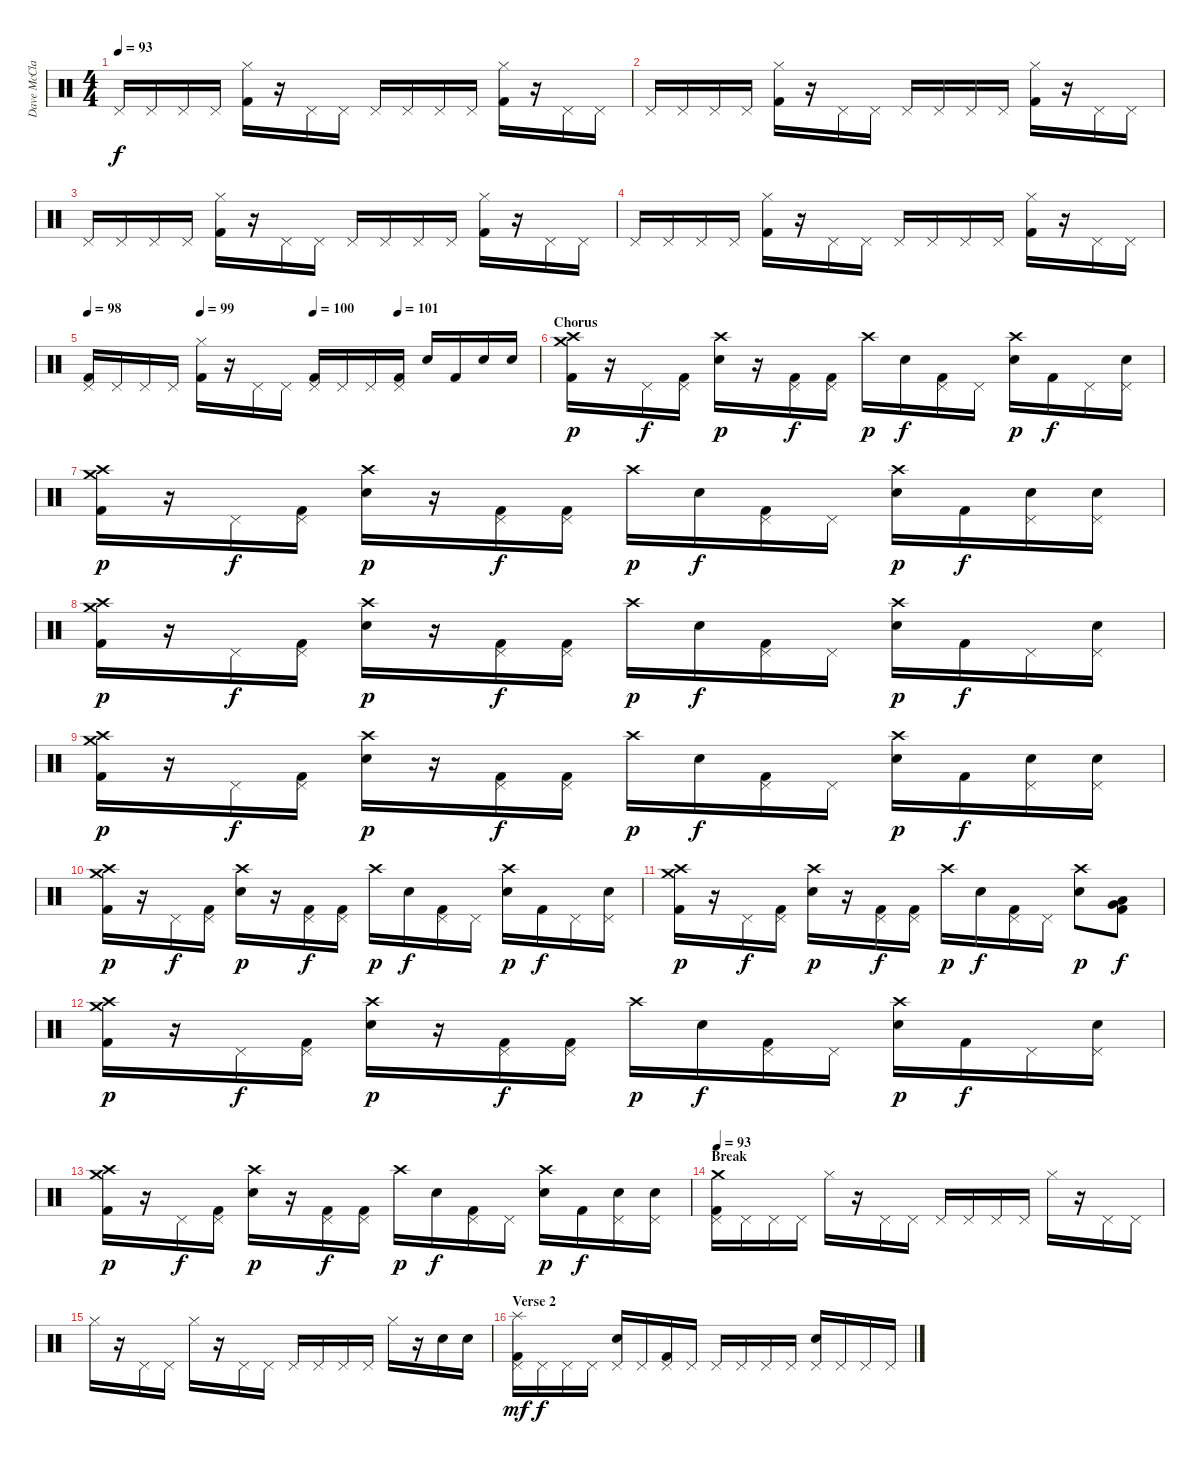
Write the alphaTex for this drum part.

\track ("Dave McClain" "Dave McCla") {instrument percussion}
\staff {score}
\articulation defaults
\ts (4 4)
\tempo 93
\clef neutral
\ks c "Pedal Hi-Hat (hit)".16{dy f} "Pedal Hi-Hat (hit)".16 "Pedal Hi-Hat (hit)".16 "Pedal Hi-Hat (hit)".16
("Hi-Hat (closed)" "Kick (hit) 2").16 r.16 "Pedal Hi-Hat (hit)".16 "Pedal Hi-Hat (hit)".16 "Pedal Hi-Hat (hit)".16 "Pedal Hi-Hat (hit)".16 "Pedal Hi-Hat (hit)".16 "Pedal Hi-Hat (hit)".16 ("Hi-Hat (closed)" "Kick (hit) 2").16 r.16 "Pedal Hi-Hat (hit)".16 "Pedal Hi-Hat (hit)".16 |
"Pedal Hi-Hat (hit)".16 "Pedal Hi-Hat (hit)".16 "Pedal Hi-Hat (hit)".16 "Pedal Hi-Hat (hit)".16 ("Hi-Hat (closed)" "Kick (hit) 2").16 r.16 "Pedal Hi-Hat (hit)".16 "Pedal Hi-Hat (hit)".16 "Pedal Hi-Hat (hit)".16 "Pedal Hi-Hat (hit)".16 "Pedal Hi-Hat (hit)".16 "Pedal Hi-Hat (hit)".16 ("Hi-Hat (closed)" "Kick (hit) 2").16 r.16 "Pedal Hi-Hat (hit)".16 "Pedal Hi-Hat (hit)".16 |
"Pedal Hi-Hat (hit)".16 "Pedal Hi-Hat (hit)".16 "Pedal Hi-Hat (hit)".16 "Pedal Hi-Hat (hit)".16 ("Hi-Hat (closed)" "Kick (hit) 2").16 r.16 "Pedal Hi-Hat (hit)".16 "Pedal Hi-Hat (hit)".16 "Pedal Hi-Hat (hit)".16 "Pedal Hi-Hat (hit)".16 "Pedal Hi-Hat (hit)".16 "Pedal Hi-Hat (hit)".16 ("Hi-Hat (closed)" "Kick (hit) 2").16 r.16 "Pedal Hi-Hat (hit)".16 "Pedal Hi-Hat (hit)".16 |
"Pedal Hi-Hat (hit)".16 "Pedal Hi-Hat (hit)".16 "Pedal Hi-Hat (hit)".16 "Pedal Hi-Hat (hit)".16 ("Hi-Hat (closed)" "Kick (hit) 2").16 r.16 "Pedal Hi-Hat (hit)".16 "Pedal Hi-Hat (hit)".16 "Pedal Hi-Hat (hit)".16 "Pedal Hi-Hat (hit)".16 "Pedal Hi-Hat (hit)".16 "Pedal Hi-Hat (hit)".16 ("Hi-Hat (closed)" "Kick (hit) 2").16 r.16 "Pedal Hi-Hat (hit)".16 "Pedal Hi-Hat (hit)".16 |
\tempo 98
\tempo (99 0.25)
\tempo (100 0.5)
\tempo (101 0.6875)
("Pedal Hi-Hat (hit)" "Kick (hit) 2").16 "Pedal Hi-Hat (hit)".16 "Pedal Hi-Hat (hit)".16 "Pedal Hi-Hat (hit)".16 ("Hi-Hat (closed)" "Kick (hit) 2").16 r.16 "Pedal Hi-Hat (hit)".16 "Pedal Hi-Hat (hit)".16 ("Pedal Hi-Hat (hit)" "Kick (hit) 2").16 "Pedal Hi-Hat (hit)".16 "Pedal Hi-Hat (hit)".16 ("Pedal Hi-Hat (hit)" "Kick (hit) 2").16 "Electric Snare (hit)".16 "Kick (hit) 2".16 "Electric Snare (hit)".16 "Electric Snare (hit)".16 |
\section ("" "Chorus")
("Crash medium (hit)" "Crash high (hit)" "Kick (hit) 2").16{dy p} r.16 "Pedal Hi-Hat (hit)".16{dy f} ("Pedal Hi-Hat (hit)" "Kick (hit) 2").16 ("Crash high (hit)" "Electric Snare (hit)").16{dy p} r.16 ("Pedal Hi-Hat (hit)" "Kick (hit) 2").16{dy f} ("Pedal Hi-Hat (hit)" "Kick (hit) 2").16 "Crash high (hit)".16{dy p} "Electric Snare (hit)".16{dy f} ("Pedal Hi-Hat (hit)" "Kick (hit) 2").16 "Pedal Hi-Hat (hit)".16 ("Crash high (hit)" "Electric Snare (hit)").16{dy p} "Kick (hit) 2".16{dy f} "Pedal Hi-Hat (hit)".16 ("Pedal Hi-Hat (hit)" "Electric Snare (hit)").16 |
("Crash medium (hit)" "Crash high (hit)" "Kick (hit) 2").16{dy p} r.16 "Pedal Hi-Hat (hit)".16{dy f} ("Pedal Hi-Hat (hit)" "Kick (hit) 2").16 ("Crash high (hit)" "Electric Snare (hit)").16{dy p} r.16 ("Pedal Hi-Hat (hit)" "Kick (hit) 2").16{dy f} ("Pedal Hi-Hat (hit)" "Kick (hit) 2").16 "Crash high (hit)".16{dy p} "Electric Snare (hit)".16{dy f} ("Pedal Hi-Hat (hit)" "Kick (hit) 2").16 "Pedal Hi-Hat (hit)".16 ("Crash high (hit)" "Electric Snare (hit)").16{dy p} "Kick (hit) 2".16{dy f} ("Pedal Hi-Hat (hit)" "Electric Snare (hit)").16 ("Pedal Hi-Hat (hit)" "Electric Snare (hit)").16 |
("Crash medium (hit)" "Crash high (hit)" "Kick (hit) 2").16{dy p} r.16 "Pedal Hi-Hat (hit)".16{dy f} ("Pedal Hi-Hat (hit)" "Kick (hit) 2").16 ("Crash high (hit)" "Electric Snare (hit)").16{dy p} r.16 ("Pedal Hi-Hat (hit)" "Kick (hit) 2").16{dy f} ("Pedal Hi-Hat (hit)" "Kick (hit) 2").16 "Crash high (hit)".16{dy p} "Electric Snare (hit)".16{dy f} ("Pedal Hi-Hat (hit)" "Kick (hit) 2").16 "Pedal Hi-Hat (hit)".16 ("Crash high (hit)" "Electric Snare (hit)").16{dy p} "Kick (hit) 2".16{dy f} "Pedal Hi-Hat (hit)".16 ("Pedal Hi-Hat (hit)" "Electric Snare (hit)").16 |
("Crash medium (hit)" "Crash high (hit)" "Kick (hit) 2").16{dy p} r.16 "Pedal Hi-Hat (hit)".16{dy f} ("Pedal Hi-Hat (hit)" "Kick (hit) 2").16 ("Crash high (hit)" "Electric Snare (hit)").16{dy p} r.16 ("Pedal Hi-Hat (hit)" "Kick (hit) 2").16{dy f} ("Pedal Hi-Hat (hit)" "Kick (hit) 2").16 "Crash high (hit)".16{dy p} "Electric Snare (hit)".16{dy f} ("Pedal Hi-Hat (hit)" "Kick (hit) 2").16 "Pedal Hi-Hat (hit)".16 ("Crash high (hit)" "Electric Snare (hit)").16{dy p} "Kick (hit) 2".16{dy f} ("Pedal Hi-Hat (hit)" "Electric Snare (hit)").16 ("Pedal Hi-Hat (hit)" "Electric Snare (hit)").16 |
("Crash medium (hit)" "Crash high (hit)" "Kick (hit) 2").16{dy p} r.16 "Pedal Hi-Hat (hit)".16{dy f} ("Pedal Hi-Hat (hit)" "Kick (hit) 2").16 ("Crash high (hit)" "Electric Snare (hit)").16{dy p} r.16 ("Pedal Hi-Hat (hit)" "Kick (hit) 2").16{dy f} ("Pedal Hi-Hat (hit)" "Kick (hit) 2").16 "Crash high (hit)".16{dy p} "Electric Snare (hit)".16{dy f} ("Pedal Hi-Hat (hit)" "Kick (hit) 2").16 "Pedal Hi-Hat (hit)".16 ("Crash high (hit)" "Electric Snare (hit)").16{dy p} "Kick (hit) 2".16{dy f} "Pedal Hi-Hat (hit)".16 ("Pedal Hi-Hat (hit)" "Electric Snare (hit)").16 |
("Crash medium (hit)" "Crash high (hit)" "Kick (hit) 2").16{dy p} r.16 "Pedal Hi-Hat (hit)".16{dy f} ("Pedal Hi-Hat (hit)" "Kick (hit) 2").16 ("Crash high (hit)" "Electric Snare (hit)").16{dy p} r.16 ("Pedal Hi-Hat (hit)" "Kick (hit) 2").16{dy f} ("Pedal Hi-Hat (hit)" "Kick (hit) 2").16 "Crash high (hit)".16{dy p} "Electric Snare (hit)".16{dy f} ("Pedal Hi-Hat (hit)" "Kick (hit) 2").16 "Pedal Hi-Hat (hit)".16 ("Crash high (hit)" "Electric Snare (hit)").8{dy p} ("Very Low Tom (hit)" "Low Tom (hit)" "Kick (hit) 2").8{dy f} |
("Crash medium (hit)" "Crash high (hit)" "Kick (hit) 2").16{dy p} r.16 "Pedal Hi-Hat (hit)".16{dy f} ("Pedal Hi-Hat (hit)" "Kick (hit) 2").16 ("Crash high (hit)" "Electric Snare (hit)").16{dy p} r.16 ("Pedal Hi-Hat (hit)" "Kick (hit) 2").16{dy f} ("Pedal Hi-Hat (hit)" "Kick (hit) 2").16 "Crash high (hit)".16{dy p} "Electric Snare (hit)".16{dy f} ("Pedal Hi-Hat (hit)" "Kick (hit) 2").16 "Pedal Hi-Hat (hit)".16 ("Crash high (hit)" "Electric Snare (hit)").16{dy p} "Kick (hit) 2".16{dy f} "Pedal Hi-Hat (hit)".16 ("Pedal Hi-Hat (hit)" "Electric Snare (hit)").16 |
("Crash medium (hit)" "Crash high (hit)" "Kick (hit) 2").16{dy p} r.16 "Pedal Hi-Hat (hit)".16{dy f} ("Pedal Hi-Hat (hit)" "Kick (hit) 2").16 ("Crash high (hit)" "Electric Snare (hit)").16{dy p} r.16 ("Pedal Hi-Hat (hit)" "Kick (hit) 2").16{dy f} ("Pedal Hi-Hat (hit)" "Kick (hit) 2").16 "Crash high (hit)".16{dy p} "Electric Snare (hit)".16{dy f} ("Pedal Hi-Hat (hit)" "Kick (hit) 2").16 "Pedal Hi-Hat (hit)".16 ("Crash high (hit)" "Electric Snare (hit)").16{dy p} "Kick (hit) 2".16{dy f} ("Pedal Hi-Hat (hit)" "Electric Snare (hit)").16 ("Pedal Hi-Hat (hit)" "Electric Snare (hit)").16 |
\section ("" "Break")
\tempo 93
("Pedal Hi-Hat (hit)" "Crash medium (hit)" "Kick (hit) 2").16 "Pedal Hi-Hat (hit)".16 "Pedal Hi-Hat (hit)".16 "Pedal Hi-Hat (hit)".16 "Hi-Hat (closed)".16 r.16 "Pedal Hi-Hat (hit)".16 "Pedal Hi-Hat (hit)".16 "Pedal Hi-Hat (hit)".16 "Pedal Hi-Hat (hit)".16 "Pedal Hi-Hat (hit)".16 "Pedal Hi-Hat (hit)".16 "Hi-Hat (closed)".16 r.16 "Pedal Hi-Hat (hit)".16 "Pedal Hi-Hat (hit)".16 |
"Hi-Hat (closed)".16 r.16 "Pedal Hi-Hat (hit)".16 "Pedal Hi-Hat (hit)".16 "Hi-Hat (closed)".16 r.16 "Pedal Hi-Hat (hit)".16 "Pedal Hi-Hat (hit)".16 "Pedal Hi-Hat (hit)".16 "Pedal Hi-Hat (hit)".16 "Pedal Hi-Hat (hit)".16 "Pedal Hi-Hat (hit)".16 "Hi-Hat (closed)".16 r.16 "Electric Snare (hit)".16 "Electric Snare (hit)".16 |
\section ("" "Verse 2")
("Pedal Hi-Hat (hit)" "Splash (hit)" "Kick (hit) 2").16{dy mf} "Pedal Hi-Hat (hit)".16{dy f} "Pedal Hi-Hat (hit)".16 "Pedal Hi-Hat (hit)".16 ("Pedal Hi-Hat (hit)" "Electric Snare (hit)").16 "Pedal Hi-Hat (hit)".16 ("Pedal Hi-Hat (hit)" "Kick (hit) 2").16 "Pedal Hi-Hat (hit)".16 "Pedal Hi-Hat (hit)".16 "Pedal Hi-Hat (hit)".16 "Pedal Hi-Hat (hit)".16 "Pedal Hi-Hat (hit)".16 ("Pedal Hi-Hat (hit)" "Electric Snare (hit)").16 "Pedal Hi-Hat (hit)".16 "Pedal Hi-Hat (hit)".16 "Pedal Hi-Hat (hit)".16
